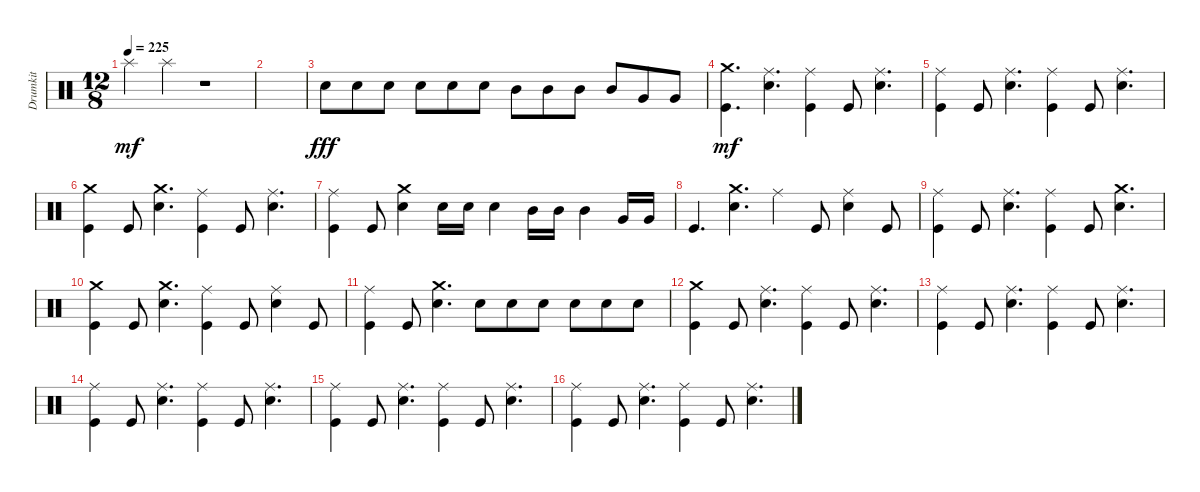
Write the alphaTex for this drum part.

\track ("Drumkit" "Drumkit") {instrument percussion}
\staff {score}
\articulation defaults
\ts (12 8)
\tempo 225
\clef neutral
\ks c "Splash (hit)".4{dy mf} "Splash (hit)".4
r.1 |
|
"Snare (hit) 2".8{dy fff} "Snare (hit) 2".8 "Snare (hit) 2".8 "Snare (hit) 2".8 "Snare (hit) 2".8 "Snare (hit) 2".8 "Mid Tom (hit)".8 "Mid Tom (hit)".8 "Mid Tom (hit)".8 "Mid Tom (hit)".8 "Very Low Tom (hit)".8 "Very Low Tom (hit)".8 |
("Crash medium (hit)" "Kick (hit)").4{d dy mf} ("Snare (hit) 2" "Ride (middle)").4{d} ("Kick (hit)" "Ride (middle)").4 "Kick (hit)".8 ("Snare (hit) 2" "Ride (middle)").4{d} |
("Kick (hit)" "Ride (middle)").4 "Kick (hit)".8 ("Snare (hit) 2" "Ride (middle)").4{d} ("Kick (hit)" "Ride (middle)").4 "Kick (hit)".8 ("Snare (hit) 2" "Ride (middle)").4{d} |
("Kick (hit)" "Crash medium (hit)").4 "Kick (hit)".8 ("Snare (hit) 2" "Crash medium (hit)").4{d} ("Kick (hit)" "Ride (middle)").4 "Kick (hit)".8 ("Snare (hit) 2" "Ride (middle)").4{d} |
("Kick (hit)" "Ride (middle)").4 "Kick (hit)".8 ("Snare (hit) 2" "Crash medium (hit)").4 "Snare (hit) 2".16 "Snare (hit) 2".16 "Snare (hit) 2".4 "Mid Tom (hit)".16 "Mid Tom (hit)".16 "Mid Tom (hit)".4 "Very Low Tom (hit)".16 "Very Low Tom (hit)".16 |
"Kick (hit)".4{d} ("Snare (hit) 2" "Crash medium (hit)").4{d} "Ride (middle)".4 "Kick (hit)".8 ("Snare (hit) 2" "Ride (middle)").4 "Kick (hit)".8 |
("Kick (hit)" "Ride (middle)").4 "Kick (hit)".8 ("Snare (hit) 2" "Ride (middle)").4{d} ("Kick (hit)" "Ride (middle)").4 "Kick (hit)".8 ("Snare (hit) 2" "Crash medium (hit)").4{d} |
("Kick (hit)" "Crash medium (hit)").4 "Kick (hit)".8 ("Snare (hit) 2" "Crash medium (hit)").4{d} ("Kick (hit)" "Ride (middle)").4 "Kick (hit)".8 ("Snare (hit) 2" "Ride (middle)").4 "Kick (hit)".8 |
("Kick (hit)" "Ride (middle)").4 "Kick (hit)".8 ("Snare (hit) 2" "Crash medium (hit)").4{d} "Snare (hit) 2".8 "Snare (hit) 2".8 "Snare (hit) 2".8 "Snare (hit) 2".8 "Snare (hit) 2".8 "Snare (hit) 2".8 |
("Kick (hit)" "Crash medium (hit)").4 "Kick (hit)".8 ("Snare (hit) 2" "Ride (middle)").4{d} ("Kick (hit)" "Ride (middle)").4 "Kick (hit)".8 ("Snare (hit) 2" "Ride (middle)").4{d} |
("Kick (hit)" "Ride (middle)").4 "Kick (hit)".8 ("Snare (hit) 2" "Ride (middle)").4{d} ("Kick (hit)" "Ride (middle)").4 "Kick (hit)".8 ("Snare (hit) 2" "Ride (middle)").4{d} |
("Kick (hit)" "Ride (middle)").4 "Kick (hit)".8 ("Snare (hit) 2" "Ride (middle)").4{d} ("Kick (hit)" "Ride (middle)").4 "Kick (hit)".8 ("Snare (hit) 2" "Ride (middle)").4{d} |
("Kick (hit)" "Ride (middle)").4 "Kick (hit)".8 ("Snare (hit) 2" "Ride (middle)").4{d} ("Kick (hit)" "Ride (middle)").4 "Kick (hit)".8 ("Snare (hit) 2" "Ride (middle)").4{d} |
("Kick (hit)" "Ride (middle)").4 "Kick (hit)".8 ("Snare (hit) 2" "Ride (middle)").4{d} ("Kick (hit)" "Ride (middle)").4 "Kick (hit)".8 ("Snare (hit) 2" "Ride (middle)").4{d}
